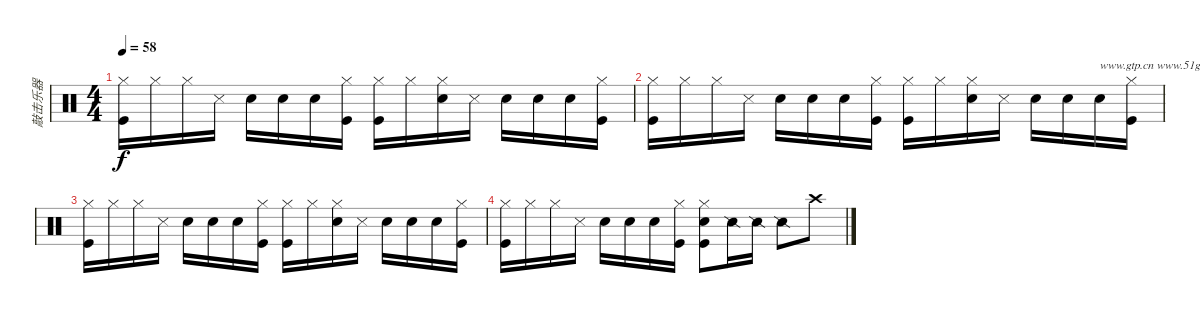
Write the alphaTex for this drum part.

\track ("敲击乐器" "敲击乐器") {instrument percussion}
\staff {score}
\articulation defaults
\ts (4 4)
\tempo 58
\clef neutral
\ks c
("Hi-Hat (closed)" "Kick (hit)").16{dy f} "Hi-Hat (closed)".16 "Hi-Hat (closed)".16 "Snare (side stick) 3".16 "Hand Clap (hit)".16 "Hand Clap (hit)".16 "Hand Clap (hit)".16 ("Hi-Hat (closed)" "Kick (hit)").16 ("Hi-Hat (closed)" "Kick (hit)").16 "Hi-Hat (closed)".16 ("Hi-Hat (closed)" "Snare (hit) 2").16 "Snare (side stick) 3".16 "Hand Clap (hit)".16 "Hand Clap (hit)".16 "Hand Clap (hit)".16 ("Hi-Hat (closed)" "Kick (hit)").16 |
("Hi-Hat (closed)" "Kick (hit)").16 "Hi-Hat (closed)".16 "Hi-Hat (closed)".16 "Snare (side stick) 3".16 "Hand Clap (hit)".16 "Hand Clap (hit)".16 "Hand Clap (hit)".16 ("Hi-Hat (closed)" "Kick (hit)").16 ("Hi-Hat (closed)" "Kick (hit)").16 "Hi-Hat (closed)".16 ("Hi-Hat (closed)" "Snare (hit) 2").16 "Snare (side stick) 3".16 "Hand Clap (hit)".16 "Hand Clap (hit)".16 "Hand Clap (hit)".16{txt "www.gtp.cn www.51gtp.com联合为您提供优秀的GTP!"} ("Hi-Hat (closed)" "Kick (hit)").16 |
("Hi-Hat (closed)" "Kick (hit)").16 "Hi-Hat (closed)".16 "Hi-Hat (closed)".16 "Snare (side stick) 3".16 "Hand Clap (hit)".16 "Hand Clap (hit)".16 "Hand Clap (hit)".16 ("Hi-Hat (closed)" "Kick (hit)").16 ("Hi-Hat (closed)" "Kick (hit)").16 "Hi-Hat (closed)".16 ("Hi-Hat (closed)" "Snare (hit) 2").16 "Snare (side stick) 3".16 "Hand Clap (hit)".16 "Hand Clap (hit)".16 "Hand Clap (hit)".16 ("Hi-Hat (closed)" "Kick (hit)").16 |
("Hi-Hat (closed)" "Kick (hit)").16 "Hi-Hat (closed)".16 "Hi-Hat (closed)".16 "Snare (side stick) 3".16 "Hand Clap (hit)".16 "Hand Clap (hit)".16 "Hand Clap (hit)".16 ("Hi-Hat (closed)" "Kick (hit)").16 ("Hi-Hat (closed)" "Snare (hit) 2" "Kick (hit)").8 "Snare (side stick) 2".16 "Snare (side stick) 2".16 "Snare (side stick) 2".8 "Crash high (hit)".8
